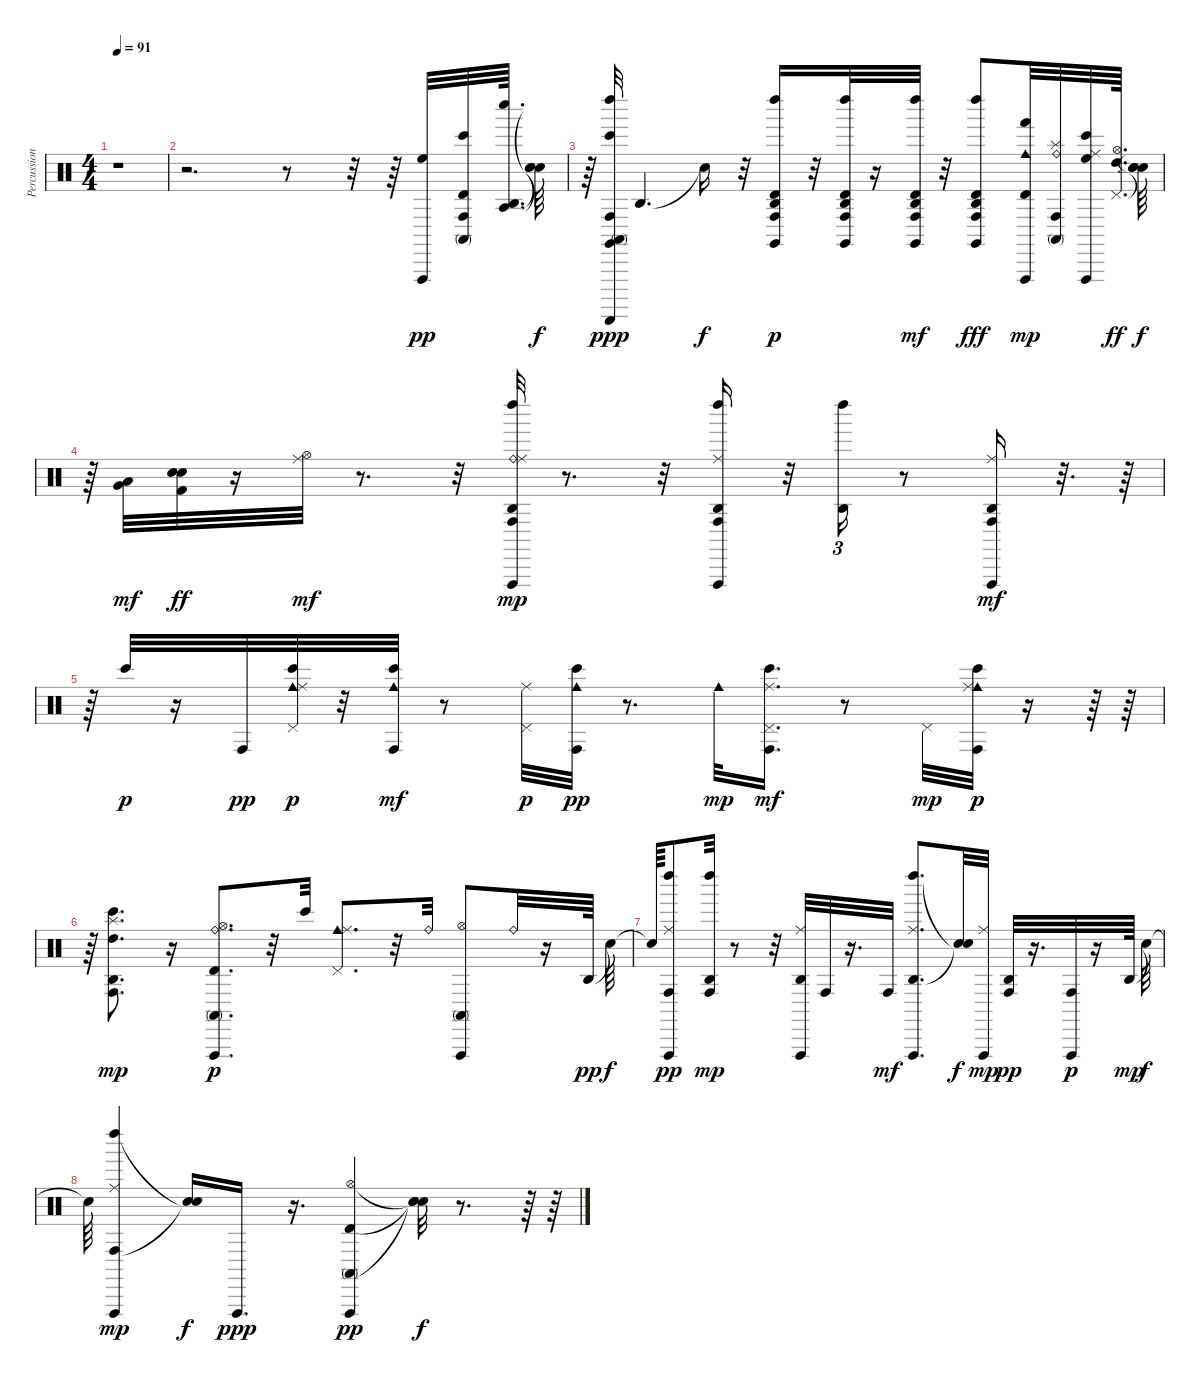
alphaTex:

\track ("Percussion Organ" "Percussion") {instrument percussion}
\staff {score}
\articulation defaults
\ts (4 4)
\tempo 91
\clef neutral
\ks c
r.1{dy p} |
r.2{d} r.8 r.32 r.64 ("High Floor Tom (hit)" "Vibraslap (hit)").32{dy pp} ("Bongo High (hit)" "Conga high (mute)" "Conga high (hit)" "Timbale high (hit)").32 ("Agogo high (hit)" "Agogo tow (hit)" "Whistle low (hit)").64{d} ("Snare (hit)"{t} "Snare (hit)"{t} "Snare (hit)"{t}).64{dy f} |
r.64 ("Guiro (scrap-return)" "Conga high (hit)" "Left Maraca (hit)" "Conga high (mute)" "Bongo High (hit)" "Claves (hit)").32{dy ppp} "Agogo high (hit)".4{d} "Snare (hit)"{t}.16{dy f} r.32 ("Timbale high (hit)" "Conga high (hit)" "Agogo high (hit)" "Left Maraca (hit)" "Claves (hit)").16{dy p} r.32 ("Left Maraca (hit)" "Conga high (hit)" "Agogo high (hit)" "Timbale high (hit)" "Claves (hit)").32 r.16 ("Claves (hit)" "Timbale high (hit)" "Agogo high (hit)" "Conga high (hit)" "Left Maraca (hit)").32{dy mf} r.32 ("Conga high (hit)" "Agogo high (hit)" "Timbale high (hit)" "Claves (hit)" "Left Maraca (hit)").8{dy fff} ("Hand (hit)" "Vibraslap (hit)" "Cowbell medium (hit)" "Timbale high (hit)").32{dy mp} ("Conga high (hit)" "Splash (hit)" "Conga high (mute)" "Ride (bell)").32 ("Bongo High (hit)" "Ride (middle)" "Vibraslap (hit)" "High Floor Tom (hit)").32 ("High Tom (hit)" "Hi-Hat (open)" "Pedal Hi-Hat (hit)").64{d dy ff} ("Snare (hit)"{t} "Snare (hit)"{t} "Snare (hit)"{t}).64{dy f} |
r.64 ("Very Low Tom (hit)" "Low Floor Tom (hit)").32{dy mf} ("Hand Clap (hit)" "Snare (hit) 2" "Kick (hit) 2").32{dy ff} r.16 ("Ride (middle)" "Hi-Hat (open)").32{dy mf} r.8{d} r.32 ("Left Maraca (hit)" "Agogo high (hit)" "Ride (bell)" "Vibraslap (hit)" "Ride (middle)" "Conga high (hit)").32{dy mp} r.8{d} r.32 ("Vibraslap (hit)" "Conga high (hit)" "Agogo high (hit)" "Left Maraca (hit)" "Ride (middle)").16 r.32 ("Agogo high (hit)" "Left Maraca (hit)").16{tu (3 2)} r.8 ("Ride (middle)" "Vibraslap (hit)" "Conga high (hit)" "Agogo high (hit)").16{dy mf} r.32{d} r.64 |
r.64 "Bongo High (hit)".32{dy p} r.16 "Conga high (hit)".32{dy pp} ("Cowbell medium (hit)" "Bongo High (hit)" "Pedal Hi-Hat (hit)" "Ride (middle)").32{dy p} r.32 ("Conga high (hit)" "Cowbell medium (hit)" "Bongo High (hit)").32{dy mf} r.8 ("Pedal Hi-Hat (hit)" "Ride (middle)").32{dy p} ("Bongo High (hit)" "Cowbell medium (hit)" "Conga high (hit)").32{dy pp} r.8{d} "Cowbell medium (hit)".32{dy mp} ("Conga high (hit)" "Bongo High (hit)" "Ride (middle)" "Pedal Hi-Hat (hit)").16{d dy mf} r.8 "Pedal Hi-Hat (hit)".32{dy mp} ("Conga high (hit)" "Bongo High (hit)" "Cowbell medium (hit)" "Ride (middle)").32{dy p} r.16 r.64 r.64 |
r.64 ("High Tom (hit)" "Conga high (hit)" "Splash (hit)" "Agogo high (hit)" "Bongo High (hit)").8{d dy mp} r.16 ("Timbale high (hit)" "Conga high (mute)" "Hi-Hat (open)" "Ride (bell)" "Vibraslap (hit)").8{d dy p} r.32 "Bongo High (hit)".32 ("Cowbell medium (hit)" "Pedal Hi-Hat (hit)" "Ride (middle)").8{d} r.32 "Ride (bell)".32 ("Conga high (mute)" "Hi-Hat (open)" "Vibraslap (hit)").8 "Ride (bell)".32 r.16 "Agogo high (hit)".64{dy pp} "Snare (hit)"{t}.64{dy f} |
"Snare (hit)"{t}.64 ("Ride (middle)" "Vibraslap (hit)" "Conga high (hit)" "Left Maraca (hit)").8{dy pp} ("Left Maraca (hit)" "Agogo high (hit)" "Conga high (hit)").32{dy mp} r.8 r.32 ("Ride (middle)" "Vibraslap (hit)" "Agogo high (hit)").32 "Conga high (hit)".32 r.16{d} "Conga high (hit)".32{dy mf} ("Agogo high (hit)" "Left Maraca (hit)" "Vibraslap (hit)" "Ride (middle)").8{d} ("Snare (hit)"{t} "Snare (hit)"{t}).32{dy f} ("Ride (middle)" "Vibraslap (hit)").32{dy mp} ("Conga high (hit)" "Agogo high (hit)").32{dy pp} r.16{d} ("Vibraslap (hit)" "Conga high (hit)").32{dy p} r.16 "Agogo high (hit)".64{dy mp} "Snare (hit)"{t}.64{dy f} |
"Snare (hit)"{t}.64 ("Left Maraca (hit)" "Conga high (hit)" "Vibraslap (hit)" "Ride (middle)").4{dy mp} ("Snare (hit)"{t} "Snare (hit)"{t}).16{dy f} "Vibraslap (hit)".16{d dy ppp} r.16{d} ("Hi-Hat (open)" "Timbale high (hit)" "Conga high (mute)" "Vibraslap (hit)").4{dy pp} ("Snare (hit)"{t} "Snare (hit)"{t} "Snare (hit)"{t}).32{dy f} r.8{d} r.64 r.64
